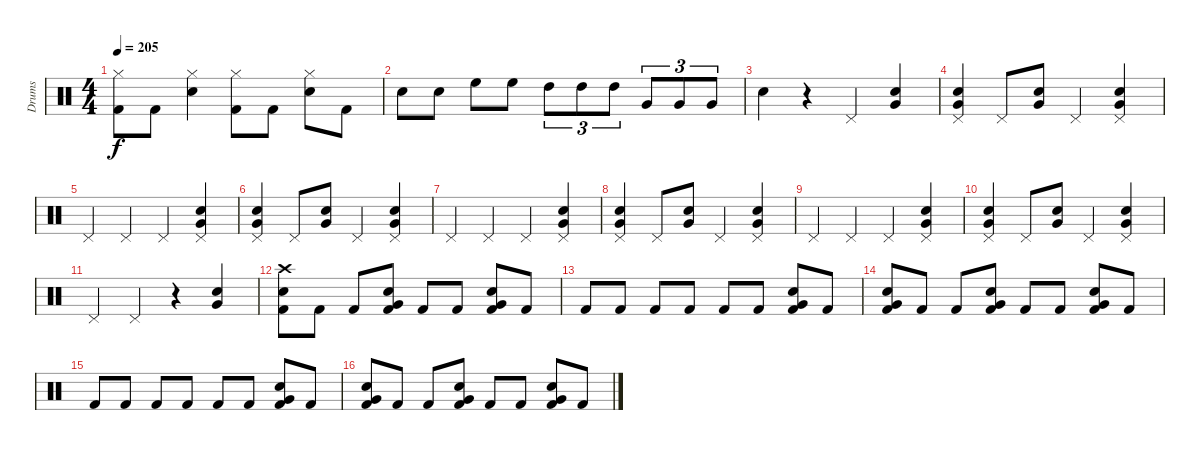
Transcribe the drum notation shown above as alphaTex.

\track ("Drums" "Drums") {instrument percussion}
\staff {score}
\articulation defaults
\ts (4 4)
\tempo 205
\clef neutral
\ks c
("Hi-Hat (closed)" "Kick (hit) 2").8{dy f} "Kick (hit) 2".8 ("Hi-Hat (closed)" "Snare (hit) 2").4 ("Hi-Hat (closed)" "Kick (hit) 2").8 "Kick (hit) 2".8 ("Hi-Hat (closed)" "Snare (hit) 2").8 "Kick (hit) 2".8 |
"Snare (hit) 2".8 "Snare (hit) 2".8 "High Floor Tom (hit)".8 "High Floor Tom (hit)".8 "High Tom (hit)".8{tu (3 2)} "High Tom (hit)".8{tu (3 2)} "High Tom (hit)".8{tu (3 2)} "Very Low Tom (hit)".8{tu (3 2)} "Very Low Tom (hit)".8{tu (3 2)} "Very Low Tom (hit)".8{tu (3 2)} |
"Snare (hit) 2".4 r.4 "Pedal Hi-Hat (hit)".4 ("Very Low Tom (hit)" "Snare (hit) 2").4 |
("Pedal Hi-Hat (hit)" "Very Low Tom (hit)" "Snare (hit) 2").4 "Pedal Hi-Hat (hit)".8 ("Very Low Tom (hit)" "Snare (hit) 2").8 "Pedal Hi-Hat (hit)".4 ("Pedal Hi-Hat (hit)" "Very Low Tom (hit)" "Snare (hit) 2").4 |
"Pedal Hi-Hat (hit)".4 "Pedal Hi-Hat (hit)".4 "Pedal Hi-Hat (hit)".4 ("Pedal Hi-Hat (hit)" "Very Low Tom (hit)" "Snare (hit) 2").4 |
("Pedal Hi-Hat (hit)" "Very Low Tom (hit)" "Snare (hit) 2").4 "Pedal Hi-Hat (hit)".8 ("Very Low Tom (hit)" "Snare (hit) 2").8 "Pedal Hi-Hat (hit)".4 ("Pedal Hi-Hat (hit)" "Very Low Tom (hit)" "Snare (hit) 2").4 |
"Pedal Hi-Hat (hit)".4 "Pedal Hi-Hat (hit)".4 "Pedal Hi-Hat (hit)".4 ("Pedal Hi-Hat (hit)" "Very Low Tom (hit)" "Snare (hit) 2").4 |
("Pedal Hi-Hat (hit)" "Very Low Tom (hit)" "Snare (hit) 2").4 "Pedal Hi-Hat (hit)".8 ("Very Low Tom (hit)" "Snare (hit) 2").8 "Pedal Hi-Hat (hit)".4 ("Pedal Hi-Hat (hit)" "Very Low Tom (hit)" "Snare (hit) 2").4 |
"Pedal Hi-Hat (hit)".4 "Pedal Hi-Hat (hit)".4 "Pedal Hi-Hat (hit)".4 ("Pedal Hi-Hat (hit)" "Very Low Tom (hit)" "Snare (hit) 2").4 |
("Pedal Hi-Hat (hit)" "Very Low Tom (hit)" "Snare (hit) 2").4 "Pedal Hi-Hat (hit)".8 ("Very Low Tom (hit)" "Snare (hit) 2").8 "Pedal Hi-Hat (hit)".4 ("Pedal Hi-Hat (hit)" "Very Low Tom (hit)" "Snare (hit) 2").4 |
"Pedal Hi-Hat (hit)".4 "Pedal Hi-Hat (hit)".4 r.4 ("Very Low Tom (hit)" "Snare (hit) 2").4 |
("Kick (hit) 2" "Snare (hit) 2" "Crash high (hit)").8 "Kick (hit) 2".8 "Kick (hit) 2".8 ("Kick (hit) 2" "Very Low Tom (hit)" "Snare (hit) 2").8 "Kick (hit) 2".8 "Kick (hit) 2".8 ("Kick (hit) 2" "Very Low Tom (hit)" "Snare (hit) 2").8 "Kick (hit) 2".8 |
"Kick (hit) 2".8 "Kick (hit) 2".8 "Kick (hit) 2".8 "Kick (hit) 2".8 "Kick (hit) 2".8 "Kick (hit) 2".8 ("Kick (hit) 2" "Very Low Tom (hit)" "Snare (hit) 2").8 "Kick (hit) 2".8 |
("Kick (hit) 2" "Very Low Tom (hit)" "Snare (hit) 2").8 "Kick (hit) 2".8 "Kick (hit) 2".8 ("Kick (hit) 2" "Very Low Tom (hit)" "Snare (hit) 2").8 "Kick (hit) 2".8 "Kick (hit) 2".8 ("Kick (hit) 2" "Very Low Tom (hit)" "Snare (hit) 2").8 "Kick (hit) 2".8 |
"Kick (hit) 2".8 "Kick (hit) 2".8 "Kick (hit) 2".8 "Kick (hit) 2".8 "Kick (hit) 2".8 "Kick (hit) 2".8 ("Kick (hit) 2" "Very Low Tom (hit)" "Snare (hit) 2").8 "Kick (hit) 2".8 |
("Kick (hit) 2" "Very Low Tom (hit)" "Snare (hit) 2").8 "Kick (hit) 2".8 "Kick (hit) 2".8 ("Kick (hit) 2" "Very Low Tom (hit)" "Snare (hit) 2").8 "Kick (hit) 2".8 "Kick (hit) 2".8 ("Kick (hit) 2" "Very Low Tom (hit)" "Snare (hit) 2").8 "Kick (hit) 2".8
